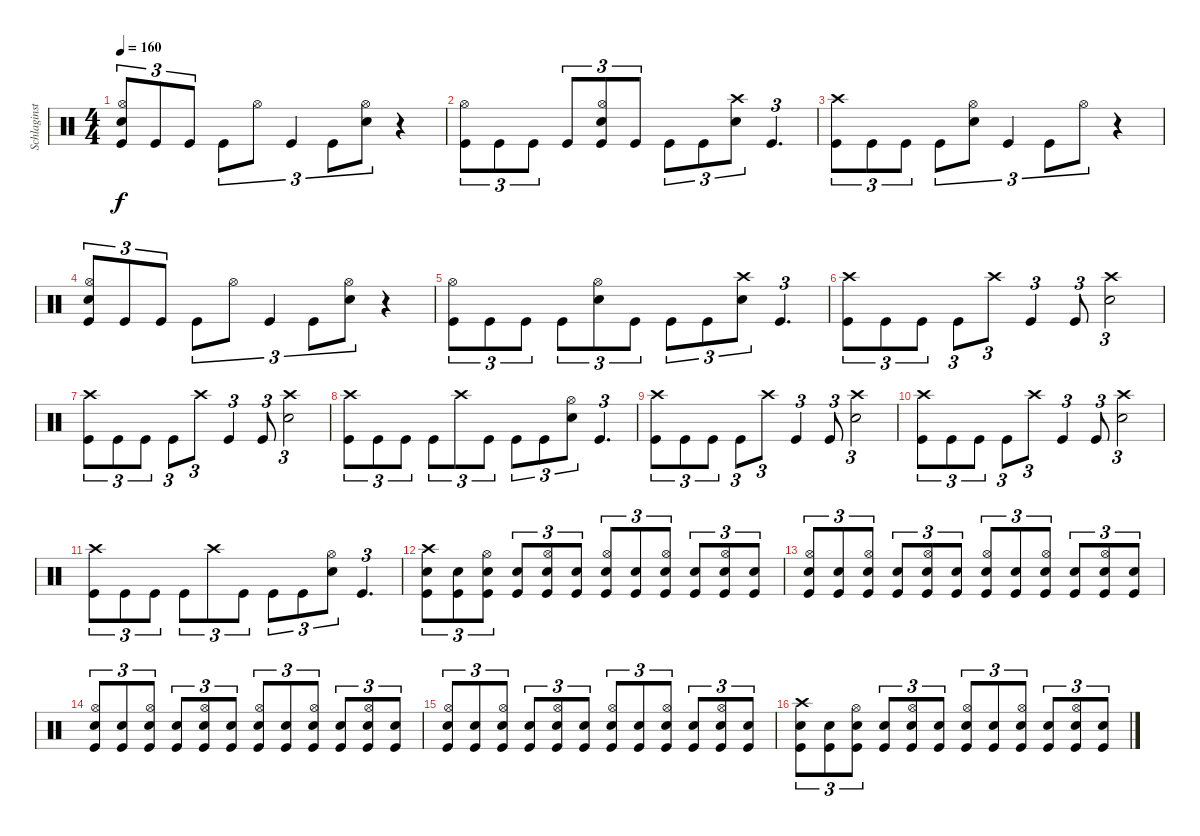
\track ("Schlaginstrumente - Auswahl" "Schlaginst") {instrument percussion}
\staff {score}
\articulation defaults
\ts (4 4)
\tempo 160
\clef neutral
\ks c
("Electric Snare (hit)" "Hi-Hat (open)" "Kick (hit)").8{tu (3 2) dy f} "Kick (hit)".8{tu (3 2)} "Kick (hit)".8{tu (3 2)} "Kick (hit)".8{tu (3 2)} "Hi-Hat (open)".8{tu (3 2)} "Kick (hit)".4{tu (3 2)} "Kick (hit)".8{tu (3 2)} ("Electric Snare (hit)" "Hi-Hat (open)").8{tu (3 2)} r.4 |
("Hi-Hat (open)" "Kick (hit)").8{tu (3 2)} "Kick (hit)".8{tu (3 2)} "Kick (hit)".8{tu (3 2)} "Kick (hit)".8{tu (3 2)} ("Kick (hit)" "Hi-Hat (open)" "Electric Snare (hit)").8{tu (3 2)} "Kick (hit)".8{tu (3 2)} "Kick (hit)".8{tu (3 2)} "Kick (hit)".8{tu (3 2)} ("Crash high (hit)" "Electric Snare (hit)").8{tu (3 2)} "Kick (hit)".4{d tu (3 2)} |
("Crash high (hit)" "Kick (hit)").8{tu (3 2)} "Kick (hit)".8{tu (3 2)} "Kick (hit)".8{tu (3 2)} "Kick (hit)".8{tu (3 2)} ("Electric Snare (hit)" "Hi-Hat (open)").8{tu (3 2)} "Kick (hit)".4{tu (3 2)} "Kick (hit)".8{tu (3 2)} "Hi-Hat (open)".8{tu (3 2)} r.4 |
("Electric Snare (hit)" "Hi-Hat (open)" "Kick (hit)").8{tu (3 2)} "Kick (hit)".8{tu (3 2)} "Kick (hit)".8{tu (3 2)} "Kick (hit)".8{tu (3 2)} "Hi-Hat (open)".8{tu (3 2)} "Kick (hit)".4{tu (3 2)} "Kick (hit)".8{tu (3 2)} ("Electric Snare (hit)" "Hi-Hat (open)").8{tu (3 2)} r.4 |
("Hi-Hat (open)" "Kick (hit)").8{tu (3 2)} "Kick (hit)".8{tu (3 2)} "Kick (hit)".8{tu (3 2)} "Kick (hit)".8{tu (3 2)} ("Hi-Hat (open)" "Electric Snare (hit)").8{tu (3 2)} "Kick (hit)".8{tu (3 2)} "Kick (hit)".8{tu (3 2)} "Kick (hit)".8{tu (3 2)} ("Crash high (hit)" "Electric Snare (hit)").8{tu (3 2)} "Kick (hit)".4{d tu (3 2)} |
("Crash high (hit)" "Kick (hit)").8{tu (3 2)} "Kick (hit)".8{tu (3 2)} "Kick (hit)".8{tu (3 2)} "Kick (hit)".8{tu (3 2)} "Crash high (hit)".8{tu (3 2)} "Kick (hit)".4{tu (3 2)} "Kick (hit)".8{tu (3 2)} ("Crash high (hit)" "Electric Snare (hit)").2{tu (3 2)} |
("Crash high (hit)" "Kick (hit)").8{tu (3 2)} "Kick (hit)".8{tu (3 2)} "Kick (hit)".8{tu (3 2)} "Kick (hit)".8{tu (3 2)} "Crash high (hit)".8{tu (3 2)} "Kick (hit)".4{tu (3 2)} "Kick (hit)".8{tu (3 2)} ("Crash high (hit)" "Electric Snare (hit)").2{tu (3 2)} |
("Crash high (hit)" "Kick (hit)").8{tu (3 2)} "Kick (hit)".8{tu (3 2)} "Kick (hit)".8{tu (3 2)} "Kick (hit)".8{tu (3 2)} "Crash high (hit)".8{tu (3 2)} "Kick (hit)".8{tu (3 2)} "Kick (hit)".8{tu (3 2)} "Kick (hit)".8{tu (3 2)} ("Hi-Hat (open)" "Electric Snare (hit)").8{tu (3 2)} "Kick (hit)".4{d tu (3 2)} |
("Crash high (hit)" "Kick (hit)").8{tu (3 2)} "Kick (hit)".8{tu (3 2)} "Kick (hit)".8{tu (3 2)} "Kick (hit)".8{tu (3 2)} "Crash high (hit)".8{tu (3 2)} "Kick (hit)".4{tu (3 2)} "Kick (hit)".8{tu (3 2)} ("Crash high (hit)" "Electric Snare (hit)").2{tu (3 2)} |
("Crash high (hit)" "Kick (hit)").8{tu (3 2)} "Kick (hit)".8{tu (3 2)} "Kick (hit)".8{tu (3 2)} "Kick (hit)".8{tu (3 2)} "Crash high (hit)".8{tu (3 2)} "Kick (hit)".4{tu (3 2)} "Kick (hit)".8{tu (3 2)} ("Crash high (hit)" "Electric Snare (hit)").2{tu (3 2)} |
("Crash high (hit)" "Kick (hit)").8{tu (3 2)} "Kick (hit)".8{tu (3 2)} "Kick (hit)".8{tu (3 2)} "Kick (hit)".8{tu (3 2)} "Crash high (hit)".8{tu (3 2)} "Kick (hit)".8{tu (3 2)} "Kick (hit)".8{tu (3 2)} "Kick (hit)".8{tu (3 2)} ("Hi-Hat (open)" "Electric Snare (hit)").8{tu (3 2)} "Kick (hit)".4{d tu (3 2)} |
("Crash high (hit)" "Electric Snare (hit)" "Kick (hit)").8{tu (3 2)} ("Electric Snare (hit)" "Kick (hit)").8{tu (3 2)} ("Hi-Hat (open)" "Electric Snare (hit)" "Kick (hit)").8{tu (3 2)} ("Electric Snare (hit)" "Kick (hit)").8{tu (3 2)} ("Hi-Hat (open)" "Electric Snare (hit)" "Kick (hit)").8{tu (3 2)} ("Electric Snare (hit)" "Kick (hit)").8{tu (3 2)} ("Hi-Hat (open)" "Electric Snare (hit)" "Kick (hit)").8{tu (3 2)} ("Electric Snare (hit)" "Kick (hit)").8{tu (3 2)} ("Hi-Hat (open)" "Electric Snare (hit)" "Kick (hit)").8{tu (3 2)} ("Electric Snare (hit)" "Kick (hit)").8{tu (3 2)} ("Hi-Hat (open)" "Electric Snare (hit)" "Kick (hit)").8{tu (3 2)} ("Electric Snare (hit)" "Kick (hit)").8{tu (3 2)} |
("Hi-Hat (open)" "Electric Snare (hit)" "Kick (hit)").8{tu (3 2)} ("Electric Snare (hit)" "Kick (hit)").8{tu (3 2)} ("Hi-Hat (open)" "Electric Snare (hit)" "Kick (hit)").8{tu (3 2)} ("Electric Snare (hit)" "Kick (hit)").8{tu (3 2)} ("Hi-Hat (open)" "Electric Snare (hit)" "Kick (hit)").8{tu (3 2)} ("Electric Snare (hit)" "Kick (hit)").8{tu (3 2)} ("Hi-Hat (open)" "Electric Snare (hit)" "Kick (hit)").8{tu (3 2)} ("Electric Snare (hit)" "Kick (hit)").8{tu (3 2)} ("Hi-Hat (open)" "Electric Snare (hit)" "Kick (hit)").8{tu (3 2)} ("Electric Snare (hit)" "Kick (hit)").8{tu (3 2)} ("Hi-Hat (open)" "Electric Snare (hit)" "Kick (hit)").8{tu (3 2)} ("Electric Snare (hit)" "Kick (hit)").8{tu (3 2)} |
("Hi-Hat (open)" "Electric Snare (hit)" "Kick (hit)").8{tu (3 2)} ("Electric Snare (hit)" "Kick (hit)").8{tu (3 2)} ("Hi-Hat (open)" "Electric Snare (hit)" "Kick (hit)").8{tu (3 2)} ("Electric Snare (hit)" "Kick (hit)").8{tu (3 2)} ("Hi-Hat (open)" "Electric Snare (hit)" "Kick (hit)").8{tu (3 2)} ("Electric Snare (hit)" "Kick (hit)").8{tu (3 2)} ("Hi-Hat (open)" "Electric Snare (hit)" "Kick (hit)").8{tu (3 2)} ("Electric Snare (hit)" "Kick (hit)").8{tu (3 2)} ("Hi-Hat (open)" "Electric Snare (hit)" "Kick (hit)").8{tu (3 2)} ("Electric Snare (hit)" "Kick (hit)").8{tu (3 2)} ("Hi-Hat (open)" "Electric Snare (hit)" "Kick (hit)").8{tu (3 2)} ("Electric Snare (hit)" "Kick (hit)").8{tu (3 2)} |
("Hi-Hat (open)" "Electric Snare (hit)" "Kick (hit)").8{tu (3 2)} ("Electric Snare (hit)" "Kick (hit)").8{tu (3 2)} ("Hi-Hat (open)" "Electric Snare (hit)" "Kick (hit)").8{tu (3 2)} ("Electric Snare (hit)" "Kick (hit)").8{tu (3 2)} ("Hi-Hat (open)" "Electric Snare (hit)" "Kick (hit)").8{tu (3 2)} ("Electric Snare (hit)" "Kick (hit)").8{tu (3 2)} ("Hi-Hat (open)" "Electric Snare (hit)" "Kick (hit)").8{tu (3 2)} ("Electric Snare (hit)" "Kick (hit)").8{tu (3 2)} ("Hi-Hat (open)" "Electric Snare (hit)" "Kick (hit)").8{tu (3 2)} ("Electric Snare (hit)" "Kick (hit)").8{tu (3 2)} ("Hi-Hat (open)" "Electric Snare (hit)" "Kick (hit)").8{tu (3 2)} ("Electric Snare (hit)" "Kick (hit)").8{tu (3 2)} |
("Crash high (hit)" "Electric Snare (hit)" "Kick (hit)").8{tu (3 2)} ("Electric Snare (hit)" "Kick (hit)").8{tu (3 2)} ("Hi-Hat (open)" "Electric Snare (hit)" "Kick (hit)").8{tu (3 2)} ("Electric Snare (hit)" "Kick (hit)").8{tu (3 2)} ("Hi-Hat (open)" "Electric Snare (hit)" "Kick (hit)").8{tu (3 2)} ("Electric Snare (hit)" "Kick (hit)").8{tu (3 2)} ("Hi-Hat (open)" "Electric Snare (hit)" "Kick (hit)").8{tu (3 2)} ("Electric Snare (hit)" "Kick (hit)").8{tu (3 2)} ("Hi-Hat (open)" "Electric Snare (hit)" "Kick (hit)").8{tu (3 2)} ("Electric Snare (hit)" "Kick (hit)").8{tu (3 2)} ("Hi-Hat (open)" "Electric Snare (hit)" "Kick (hit)").8{tu (3 2)} ("Electric Snare (hit)" "Kick (hit)").8{tu (3 2)}
